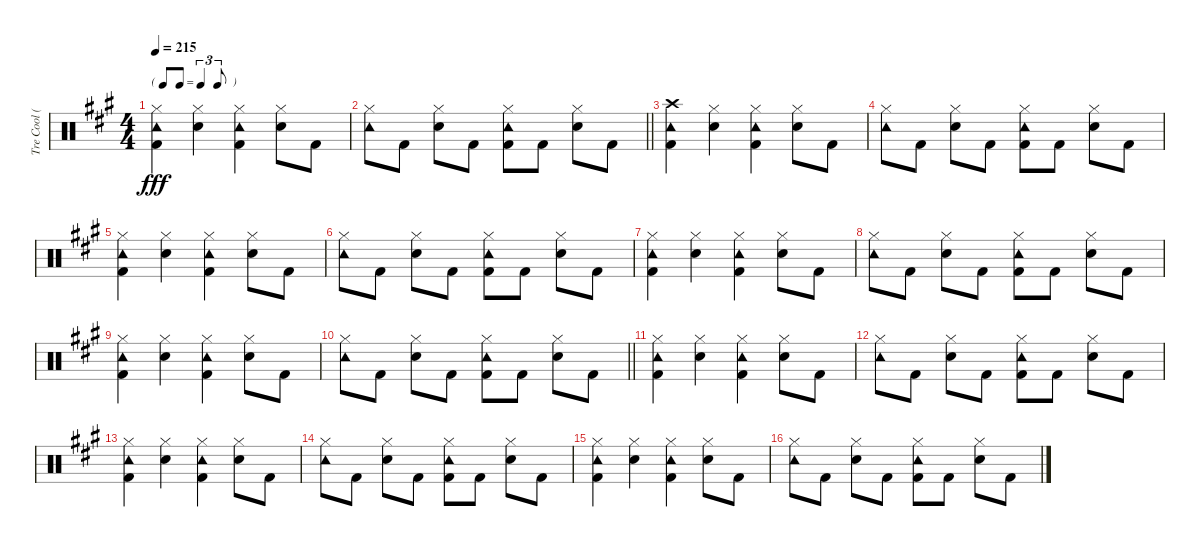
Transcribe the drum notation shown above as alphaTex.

\track ("Tre Cool (Drums)" "Tre Cool (") {instrument percussion}
\staff {score}
\articulation defaults
\ts (4 4)
\tf triplet8th
\tempo 215
\clef neutral
\ks a
("Hi-Hat (closed)" "Kick (hit) 2" "Tambourine (hit)").4{dy fff} ("Hi-Hat (closed)" "Electric Snare (hit)").4 ("Hi-Hat (closed)" "Kick (hit) 2" "Tambourine (hit)").4 ("Hi-Hat (closed)" "Electric Snare (hit)").8 "Kick (hit) 2".8 |
\barLineRight lightlight
("Hi-Hat (closed)" "Tambourine (hit)").8 "Kick (hit) 2".8 ("Hi-Hat (closed)" "Electric Snare (hit)").8 "Kick (hit) 2".8 ("Hi-Hat (closed)" "Kick (hit) 2" "Tambourine (hit)").8 "Kick (hit) 2".8 ("Hi-Hat (closed)" "Electric Snare (hit)").8 "Kick (hit) 2".8 |
("Crash high (hit)" "Kick (hit) 2" "Tambourine (hit)").4 ("Hi-Hat (closed)" "Electric Snare (hit)").4 ("Hi-Hat (closed)" "Kick (hit) 2" "Tambourine (hit)").4 ("Hi-Hat (closed)" "Electric Snare (hit)").8 "Kick (hit) 2".8 |
("Hi-Hat (closed)" "Tambourine (hit)").8 "Kick (hit) 2".8 ("Hi-Hat (closed)" "Electric Snare (hit)").8 "Kick (hit) 2".8 ("Hi-Hat (closed)" "Kick (hit) 2" "Tambourine (hit)").8 "Kick (hit) 2".8 ("Hi-Hat (closed)" "Electric Snare (hit)").8 "Kick (hit) 2".8 |
("Hi-Hat (closed)" "Kick (hit) 2" "Tambourine (hit)").4 ("Hi-Hat (closed)" "Electric Snare (hit)").4 ("Hi-Hat (closed)" "Kick (hit) 2" "Tambourine (hit)").4 ("Hi-Hat (closed)" "Electric Snare (hit)").8 "Kick (hit) 2".8 |
("Hi-Hat (closed)" "Tambourine (hit)").8 "Kick (hit) 2".8 ("Hi-Hat (closed)" "Electric Snare (hit)").8 "Kick (hit) 2".8 ("Hi-Hat (closed)" "Kick (hit) 2" "Tambourine (hit)").8 "Kick (hit) 2".8 ("Hi-Hat (closed)" "Electric Snare (hit)").8 "Kick (hit) 2".8 |
("Hi-Hat (closed)" "Kick (hit) 2" "Tambourine (hit)").4 ("Hi-Hat (closed)" "Electric Snare (hit)").4 ("Hi-Hat (closed)" "Kick (hit) 2" "Tambourine (hit)").4 ("Hi-Hat (closed)" "Electric Snare (hit)").8 "Kick (hit) 2".8 |
("Hi-Hat (closed)" "Tambourine (hit)").8 "Kick (hit) 2".8 ("Hi-Hat (closed)" "Electric Snare (hit)").8 "Kick (hit) 2".8 ("Hi-Hat (closed)" "Kick (hit) 2" "Tambourine (hit)").8 "Kick (hit) 2".8 ("Hi-Hat (closed)" "Electric Snare (hit)").8 "Kick (hit) 2".8 |
("Hi-Hat (closed)" "Kick (hit) 2" "Tambourine (hit)").4 ("Hi-Hat (closed)" "Electric Snare (hit)").4 ("Hi-Hat (closed)" "Kick (hit) 2" "Tambourine (hit)").4 ("Hi-Hat (closed)" "Electric Snare (hit)").8 "Kick (hit) 2".8 |
\barLineRight lightlight
("Hi-Hat (closed)" "Tambourine (hit)").8 "Kick (hit) 2".8 ("Hi-Hat (closed)" "Electric Snare (hit)").8 "Kick (hit) 2".8 ("Hi-Hat (closed)" "Kick (hit) 2" "Tambourine (hit)").8 "Kick (hit) 2".8 ("Hi-Hat (closed)" "Electric Snare (hit)").8 "Kick (hit) 2".8 |
("Hi-Hat (closed)" "Kick (hit) 2" "Tambourine (hit)").4 ("Hi-Hat (closed)" "Electric Snare (hit)").4 ("Hi-Hat (closed)" "Kick (hit) 2" "Tambourine (hit)").4 ("Hi-Hat (closed)" "Electric Snare (hit)").8 "Kick (hit) 2".8 |
("Hi-Hat (closed)" "Tambourine (hit)").8 "Kick (hit) 2".8 ("Hi-Hat (closed)" "Electric Snare (hit)").8 "Kick (hit) 2".8 ("Hi-Hat (closed)" "Kick (hit) 2" "Tambourine (hit)").8 "Kick (hit) 2".8 ("Hi-Hat (closed)" "Electric Snare (hit)").8 "Kick (hit) 2".8 |
("Hi-Hat (closed)" "Kick (hit) 2" "Tambourine (hit)").4 ("Hi-Hat (closed)" "Electric Snare (hit)").4 ("Hi-Hat (closed)" "Kick (hit) 2" "Tambourine (hit)").4 ("Hi-Hat (closed)" "Electric Snare (hit)").8 "Kick (hit) 2".8 |
("Hi-Hat (closed)" "Tambourine (hit)").8 "Kick (hit) 2".8 ("Hi-Hat (closed)" "Electric Snare (hit)").8 "Kick (hit) 2".8 ("Hi-Hat (closed)" "Kick (hit) 2" "Tambourine (hit)").8 "Kick (hit) 2".8 ("Hi-Hat (closed)" "Electric Snare (hit)").8 "Kick (hit) 2".8 |
("Hi-Hat (closed)" "Kick (hit) 2" "Tambourine (hit)").4 ("Hi-Hat (closed)" "Electric Snare (hit)").4 ("Hi-Hat (closed)" "Kick (hit) 2" "Tambourine (hit)").4 ("Hi-Hat (closed)" "Electric Snare (hit)").8 "Kick (hit) 2".8 |
("Hi-Hat (closed)" "Tambourine (hit)").8 "Kick (hit) 2".8 ("Hi-Hat (closed)" "Electric Snare (hit)").8 "Kick (hit) 2".8 ("Hi-Hat (closed)" "Kick (hit) 2" "Tambourine (hit)").8 "Kick (hit) 2".8 ("Hi-Hat (closed)" "Electric Snare (hit)").8 "Kick (hit) 2".8
